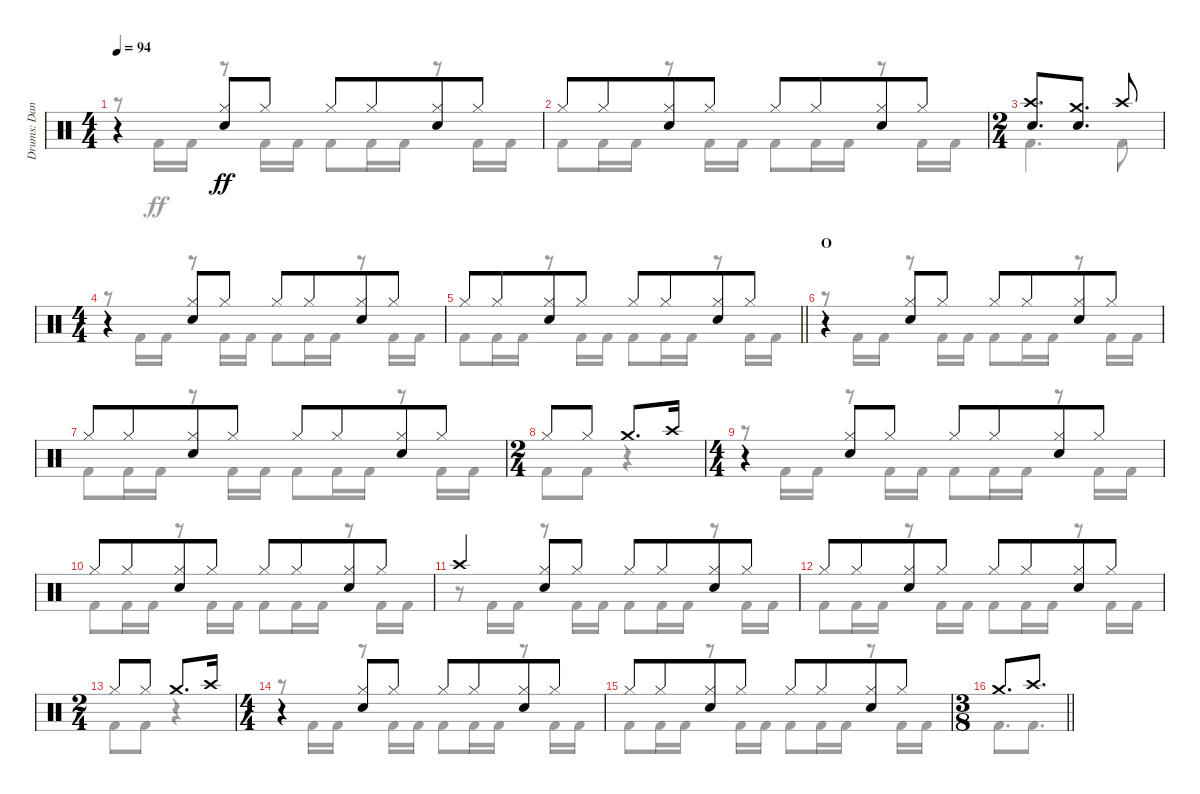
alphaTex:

\track ("Drums: Dana" "Drums: Dan") {instrument percussion}
\staff {score}
\articulation defaults
\voice
\ts (4 4)
\tempo 94
\clef neutral
\ks c
r.4{dy ff} ("Hi-Hat (closed)" "Snare (hit) 2").8 "Hi-Hat (closed)".8 "Hi-Hat (closed)".8 "Hi-Hat (closed)".8{beam merge} ("Hi-Hat (closed)" "Snare (hit) 2").8 "Hi-Hat (closed)".8 |
"Hi-Hat (closed)".8 "Hi-Hat (closed)".8{beam merge} ("Hi-Hat (closed)" "Snare (hit) 2").8 "Hi-Hat (closed)".8 "Hi-Hat (closed)".8 "Hi-Hat (closed)".8{beam merge} ("Hi-Hat (closed)" "Snare (hit) 2").8 "Hi-Hat (closed)".8 |
\ts (2 4)
("Crash high (hit)" "Snare (hit) 2").8{d} ("Crash medium (hit)" "Snare (hit) 2").8{d} "Crash high (hit)".8 |
\ts (4 4)
r.4 ("Hi-Hat (closed)" "Snare (hit) 2").8 "Hi-Hat (closed)".8 "Hi-Hat (closed)".8 "Hi-Hat (closed)".8{beam merge} ("Hi-Hat (closed)" "Snare (hit) 2").8 "Hi-Hat (closed)".8 |
\barLineRight lightlight "Hi-Hat (closed)".8 "Hi-Hat (closed)".8{beam merge}
("Hi-Hat (closed)" "Snare (hit) 2").8 "Hi-Hat (closed)".8 "Hi-Hat (closed)".8 "Hi-Hat (closed)".8{beam merge} ("Hi-Hat (closed)" "Snare (hit) 2").8 "Hi-Hat (closed)".8 |
\section ("" "O")
r.4 ("Hi-Hat (closed)" "Snare (hit) 2").8 "Hi-Hat (closed)".8 "Hi-Hat (closed)".8 "Hi-Hat (closed)".8{beam merge} ("Hi-Hat (closed)" "Snare (hit) 2").8 "Hi-Hat (closed)".8 |
"Hi-Hat (closed)".8 "Hi-Hat (closed)".8{beam merge} ("Hi-Hat (closed)" "Snare (hit) 2").8 "Hi-Hat (closed)".8 "Hi-Hat (closed)".8 "Hi-Hat (closed)".8{beam merge} ("Hi-Hat (closed)" "Snare (hit) 2").8 "Hi-Hat (closed)".8 |
\ts (2 4)
"Hi-Hat (closed)".8 "Hi-Hat (closed)".8 "Crash medium (hit)".8{d} "Crash high (hit)".16 |
\ts (4 4)
r.4 ("Hi-Hat (closed)" "Snare (hit) 2").8 "Hi-Hat (closed)".8 "Hi-Hat (closed)".8 "Hi-Hat (closed)".8{beam merge} ("Hi-Hat (closed)" "Snare (hit) 2").8 "Hi-Hat (closed)".8 |
"Hi-Hat (closed)".8 "Hi-Hat (closed)".8{beam merge} ("Hi-Hat (closed)" "Snare (hit) 2").8 "Hi-Hat (closed)".8 "Hi-Hat (closed)".8 "Hi-Hat (closed)".8{beam merge} ("Hi-Hat (closed)" "Snare (hit) 2").8 "Hi-Hat (closed)".8 |
"Crash high (hit)".4 ("Hi-Hat (closed)" "Snare (hit) 2").8 "Hi-Hat (closed)".8 "Hi-Hat (closed)".8 "Hi-Hat (closed)".8{beam merge} ("Hi-Hat (closed)" "Snare (hit) 2").8 "Hi-Hat (closed)".8 |
"Hi-Hat (closed)".8 "Hi-Hat (closed)".8{beam merge} ("Hi-Hat (closed)" "Snare (hit) 2").8 "Hi-Hat (closed)".8 "Hi-Hat (closed)".8 "Hi-Hat (closed)".8{beam merge} ("Hi-Hat (closed)" "Snare (hit) 2").8 "Hi-Hat (closed)".8 |
\ts (2 4)
"Hi-Hat (closed)".8 "Hi-Hat (closed)".8 "Crash medium (hit)".8{d} "Crash high (hit)".16 |
\ts (4 4)
r.4 ("Hi-Hat (closed)" "Snare (hit) 2").8 "Hi-Hat (closed)".8 "Hi-Hat (closed)".8 "Hi-Hat (closed)".8{beam merge} ("Hi-Hat (closed)" "Snare (hit) 2").8 "Hi-Hat (closed)".8 |
"Hi-Hat (closed)".8 "Hi-Hat (closed)".8{beam merge} ("Hi-Hat (closed)" "Snare (hit) 2").8 "Hi-Hat (closed)".8 "Hi-Hat (closed)".8 "Hi-Hat (closed)".8{beam merge} ("Hi-Hat (closed)" "Snare (hit) 2").8 "Hi-Hat (closed)".8 |
\ts (3 8)
\barLineRight lightlight "Crash medium (hit)".8{d} "Crash high (hit)".8{d}
\voice
\clef neutral
\ottava regular
\simile none
\ks c
r.8{dy ff} "Kick (hit) 2".16 "Kick (hit) 2".16 r.8 "Kick (hit) 2".16 "Kick (hit) 2".16 "Kick (hit) 2".8 "Kick (hit) 2".16 "Kick (hit) 2".16 r.8 "Kick (hit) 2".16 "Kick (hit) 2".16 |
"Kick (hit) 2".8 "Kick (hit) 2".16 "Kick (hit) 2".16 r.8 "Kick (hit) 2".16 "Kick (hit) 2".16 "Kick (hit) 2".8 "Kick (hit) 2".16 "Kick (hit) 2".16 r.8 "Kick (hit) 2".16 "Kick (hit) 2".16 |
"Kick (hit) 2".4{d} "Kick (hit) 2".8 |
r.8 "Kick (hit) 2".16 "Kick (hit) 2".16 r.8 "Kick (hit) 2".16 "Kick (hit) 2".16 "Kick (hit) 2".8 "Kick (hit) 2".16 "Kick (hit) 2".16 r.8 "Kick (hit) 2".16 "Kick (hit) 2".16 |
\barLineRight lightlight "Kick (hit) 2".8 "Kick (hit) 2".16 "Kick (hit) 2".16
r.8 "Kick (hit) 2".16 "Kick (hit) 2".16 "Kick (hit) 2".8 "Kick (hit) 2".16 "Kick (hit) 2".16 r.8 "Kick (hit) 2".16 "Kick (hit) 2".16 |
r.8 "Kick (hit) 2".16 "Kick (hit) 2".16 r.8 "Kick (hit) 2".16 "Kick (hit) 2".16 "Kick (hit) 2".8 "Kick (hit) 2".16 "Kick (hit) 2".16 r.8 "Kick (hit) 2".16 "Kick (hit) 2".16 |
"Kick (hit) 2".8 "Kick (hit) 2".16 "Kick (hit) 2".16 r.8 "Kick (hit) 2".16 "Kick (hit) 2".16 "Kick (hit) 2".8 "Kick (hit) 2".16 "Kick (hit) 2".16 r.8 "Kick (hit) 2".16 "Kick (hit) 2".16 |
"Kick (hit) 2".8 "Kick (hit) 2".8 r.4 |
r.8 "Kick (hit) 2".16 "Kick (hit) 2".16 r.8 "Kick (hit) 2".16 "Kick (hit) 2".16 "Kick (hit) 2".8 "Kick (hit) 2".16 "Kick (hit) 2".16 r.8 "Kick (hit) 2".16 "Kick (hit) 2".16 |
"Kick (hit) 2".8 "Kick (hit) 2".16 "Kick (hit) 2".16 r.8 "Kick (hit) 2".16 "Kick (hit) 2".16 "Kick (hit) 2".8 "Kick (hit) 2".16 "Kick (hit) 2".16 r.8 "Kick (hit) 2".16 "Kick (hit) 2".16 |
r.8 "Kick (hit) 2".16 "Kick (hit) 2".16 r.8 "Kick (hit) 2".16 "Kick (hit) 2".16 "Kick (hit) 2".8 "Kick (hit) 2".16 "Kick (hit) 2".16 r.8 "Kick (hit) 2".16 "Kick (hit) 2".16 |
"Kick (hit) 2".8 "Kick (hit) 2".16 "Kick (hit) 2".16 r.8 "Kick (hit) 2".16 "Kick (hit) 2".16 "Kick (hit) 2".8 "Kick (hit) 2".16 "Kick (hit) 2".16 r.8 "Kick (hit) 2".16 "Kick (hit) 2".16 |
"Kick (hit) 2".8 "Kick (hit) 2".8 r.4 |
r.8 "Kick (hit) 2".16 "Kick (hit) 2".16 r.8 "Kick (hit) 2".16 "Kick (hit) 2".16 "Kick (hit) 2".8 "Kick (hit) 2".16 "Kick (hit) 2".16 r.8 "Kick (hit) 2".16 "Kick (hit) 2".16 |
"Kick (hit) 2".8 "Kick (hit) 2".16 "Kick (hit) 2".16 r.8 "Kick (hit) 2".16 "Kick (hit) 2".16 "Kick (hit) 2".8 "Kick (hit) 2".16 "Kick (hit) 2".16 r.8 "Kick (hit) 2".16 "Kick (hit) 2".16 |
\barLineRight lightlight "Kick (hit) 2".8{d} "Kick (hit) 2".8{d}
